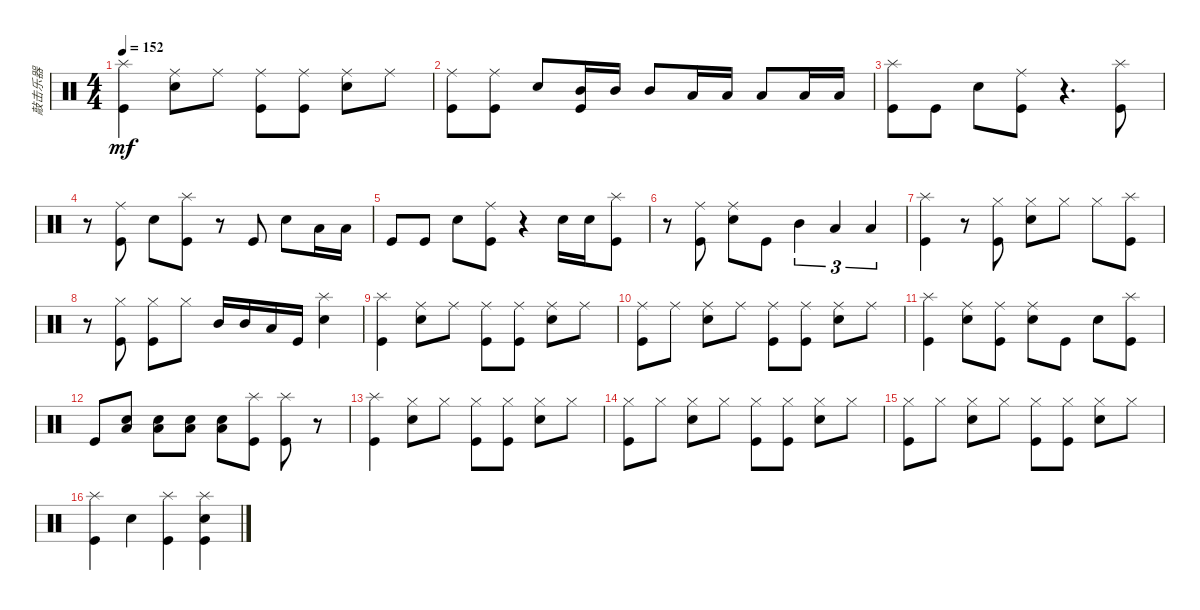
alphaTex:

\track ("敲击乐器" "敲击乐器") {instrument percussion}
\staff {score}
\articulation defaults
\ts (4 4)
\tempo 152
\clef neutral
\ks c
("Splash (hit)" "Kick (hit)").4{dy mf} ("Ride (middle)" "Snare (hit) 2").8 "Ride (middle)".8 ("Ride (middle)" "Kick (hit)").8 ("Ride (middle)" "Kick (hit)").8 ("Ride (middle)" "Snare (hit) 2").8 "Ride (middle)".8 |
("Ride (middle)" "Kick (hit)").8 ("Ride (middle)" "Kick (hit)").8 "Snare (hit) 2".8 ("Mid Tom (hit)" "Kick (hit)").16 "Mid Tom (hit)".16 "Mid Tom (hit)".8 "Low Tom (hit)".16 "Low Tom (hit)".16 "Low Tom (hit)".8 "Low Floor Tom (hit)".16 "Low Floor Tom (hit)".16 |
("Splash (hit)" "Kick (hit)").8 "Kick (hit)".8 "Snare (hit) 2".8 ("Ride (middle)" "Kick (hit)").8 r.4{d} ("Splash (hit)" "Kick (hit)").8 |
r.8 ("Ride (middle)" "Kick (hit)").8 "Snare (hit) 2".8 ("Splash (hit)" "Kick (hit)").8 r.8 "Kick (hit)".8 "Snare (hit) 2".8 "Low Floor Tom (hit)".16 "Low Floor Tom (hit)".16 |
"Kick (hit)".8 "Kick (hit)".8 "Snare (hit) 2".8 ("Ride (middle)" "Kick (hit)").8 r.4 "Snare (hit) 2".16 "Snare (hit) 2".16 ("Splash (hit)" "Kick (hit)").8 |
r.8 ("Ride (middle)" "Kick (hit)").8 ("Ride (middle)" "Snare (hit) 2").8 "Kick (hit)".8 "Mid Tom (hit)".4{tu (3 2)} "Low Tom (hit)".4{tu (3 2)} "Low Floor Tom (hit)".4{tu (3 2)} |
("Splash (hit)" "Kick (hit)").4 r.8 ("Hi-Hat (closed)" "Kick (hit)").8 ("Hi-Hat (closed)" "Snare (hit) 2").8 "Hi-Hat (closed)".8 "Hi-Hat (closed)".8 ("Splash (hit)" "Kick (hit)").8 |
r.8 ("Hi-Hat (closed)" "Kick (hit)").8 ("Hi-Hat (closed)" "Kick (hit)").8 "Hi-Hat (closed)".8 "Mid Tom (hit)".16 "Mid Tom (hit)".16 "Low Tom (hit)".16 "Kick (hit)".16 ("Snare (hit) 2" "Splash (hit)").4 |
("Splash (hit)" "Kick (hit)").4 ("Ride (middle)" "Snare (hit) 2").8 "Ride (middle)".8 ("Ride (middle)" "Kick (hit)").8 ("Ride (middle)" "Kick (hit)").8 ("Ride (middle)" "Snare (hit) 2").8 "Ride (middle)".8 |
("Ride (middle)" "Kick (hit)").8 "Ride (middle)".8 ("Ride (middle)" "Snare (hit) 2").8 "Ride (middle)".8 ("Ride (middle)" "Kick (hit)").8 ("Ride (middle)" "Kick (hit)").8 ("Ride (middle)" "Snare (hit) 2").8 "Ride (middle)".8 |
("Splash (hit)" "Kick (hit)").4 ("Ride (middle)" "Snare (hit) 2").8 ("Ride (middle)" "Kick (hit)").8 ("Ride (middle)" "Snare (hit) 2").8 "Kick (hit)".8 "Snare (hit) 2".8 ("Splash (hit)" "Kick (hit)").8 |
"Kick (hit)".8 ("Snare (hit) 2" "Low Floor Tom (hit)").8 ("Snare (hit) 2" "Low Floor Tom (hit)").8 ("Snare (hit) 2" "Low Floor Tom (hit)").8 ("Snare (hit) 2" "Low Floor Tom (hit)").8 ("Splash (hit)" "Kick (hit)").8 ("Splash (hit)" "Kick (hit)").8 r.8 |
("Splash (hit)" "Kick (hit)").4 ("Hi-Hat (closed)" "Snare (hit) 2").8 "Hi-Hat (closed)".8 ("Hi-Hat (closed)" "Kick (hit)").8 ("Hi-Hat (closed)" "Kick (hit)").8 ("Hi-Hat (closed)" "Snare (hit) 2").8 "Hi-Hat (closed)".8 |
("Hi-Hat (closed)" "Kick (hit)").8 "Hi-Hat (closed)".8 ("Hi-Hat (closed)" "Snare (hit) 2").8 "Hi-Hat (closed)".8 ("Hi-Hat (closed)" "Kick (hit)").8 ("Hi-Hat (closed)" "Kick (hit)").8 ("Hi-Hat (closed)" "Snare (hit) 2").8 "Hi-Hat (closed)".8 |
("Hi-Hat (closed)" "Kick (hit)").8 "Hi-Hat (closed)".8 ("Hi-Hat (closed)" "Snare (hit) 2").8 "Hi-Hat (closed)".8 ("Hi-Hat (closed)" "Kick (hit)").8 ("Hi-Hat (closed)" "Kick (hit)").8 ("Hi-Hat (closed)" "Snare (hit) 2").8 "Hi-Hat (closed)".8 |
("Splash (hit)" "Kick (hit)").4 "Snare (hit) 2".4 ("Splash (hit)" "Kick (hit)").4 ("Splash (hit)" "Snare (hit) 2" "Kick (hit)").4
